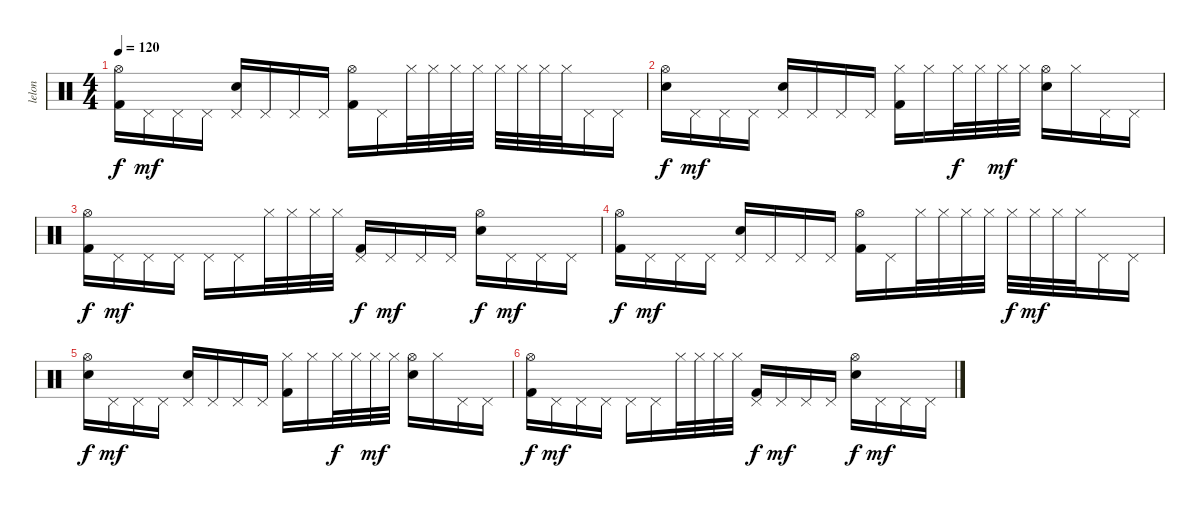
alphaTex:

\track ("lelon" "lelon") {instrument percussion}
\staff {score}
\articulation defaults
\ts (4 4)
\tempo 120
\clef neutral
\ks c
("Hi-Hat (open)" "Kick (hit) 2").16{dy f} "Pedal Hi-Hat (hit)".16{dy mf} "Pedal Hi-Hat (hit)".16 "Pedal Hi-Hat (hit)".16 ("Pedal Hi-Hat (hit)" "Electric Snare (hit)").16 "Pedal Hi-Hat (hit)".16 "Pedal Hi-Hat (hit)".16 "Pedal Hi-Hat (hit)".16 ("Hi-Hat (open)" "Kick (hit) 2").16 "Pedal Hi-Hat (hit)".16 "Hi-Hat (closed)".32 "Hi-Hat (closed)".32 "Hi-Hat (closed)".32 "Hi-Hat (closed)".32 "Hi-Hat (closed)".32 "Hi-Hat (closed)".32 "Hi-Hat (closed)".32 "Hi-Hat (closed)".32 "Pedal Hi-Hat (hit)".16 "Pedal Hi-Hat (hit)".16 |
("Hi-Hat (open)" "Electric Snare (hit)").16{dy f} "Pedal Hi-Hat (hit)".16{dy mf} "Pedal Hi-Hat (hit)".16 "Pedal Hi-Hat (hit)".16 ("Pedal Hi-Hat (hit)" "Electric Snare (hit)").16 "Pedal Hi-Hat (hit)".16 "Pedal Hi-Hat (hit)".16 "Pedal Hi-Hat (hit)".16 ("Hi-Hat (closed)" "Kick (hit) 2").16 "Hi-Hat (closed)".16 "Hi-Hat (closed)".32{dy f} "Hi-Hat (closed)".32 "Hi-Hat (closed)".32{dy mf} "Hi-Hat (closed)".32 ("Hi-Hat (open)" "Electric Snare (hit)").16 "Hi-Hat (closed)".16 "Pedal Hi-Hat (hit)".16 "Pedal Hi-Hat (hit)".16 |
("Hi-Hat (open)" "Kick (hit) 2").16{dy f} "Pedal Hi-Hat (hit)".16{dy mf} "Pedal Hi-Hat (hit)".16 "Pedal Hi-Hat (hit)".16 "Pedal Hi-Hat (hit)".16 "Pedal Hi-Hat (hit)".16 "Hi-Hat (closed)".32 "Hi-Hat (closed)".32 "Hi-Hat (closed)".32 "Hi-Hat (closed)".32 ("Pedal Hi-Hat (hit)" "Kick (hit) 2").16{dy f} "Pedal Hi-Hat (hit)".16{dy mf} "Pedal Hi-Hat (hit)".16 "Pedal Hi-Hat (hit)".16 ("Hi-Hat (open)" "Electric Snare (hit)").16{dy f} "Pedal Hi-Hat (hit)".16{dy mf} "Pedal Hi-Hat (hit)".16 "Pedal Hi-Hat (hit)".16 |
("Hi-Hat (open)" "Kick (hit) 2").16{dy f} "Pedal Hi-Hat (hit)".16{dy mf} "Pedal Hi-Hat (hit)".16 "Pedal Hi-Hat (hit)".16 ("Pedal Hi-Hat (hit)" "Electric Snare (hit)").16 "Pedal Hi-Hat (hit)".16 "Pedal Hi-Hat (hit)".16 "Pedal Hi-Hat (hit)".16 ("Hi-Hat (open)" "Kick (hit) 2").16 "Pedal Hi-Hat (hit)".16 "Hi-Hat (closed)".32 "Hi-Hat (closed)".32 "Hi-Hat (closed)".32 "Hi-Hat (closed)".32 "Hi-Hat (closed)".32{dy f} "Hi-Hat (closed)".32{dy mf} "Hi-Hat (closed)".32 "Hi-Hat (closed)".32 "Pedal Hi-Hat (hit)".16 "Pedal Hi-Hat (hit)".16 |
("Hi-Hat (open)" "Electric Snare (hit)").16{dy f} "Pedal Hi-Hat (hit)".16{dy mf} "Pedal Hi-Hat (hit)".16 "Pedal Hi-Hat (hit)".16 ("Pedal Hi-Hat (hit)" "Electric Snare (hit)").16 "Pedal Hi-Hat (hit)".16 "Pedal Hi-Hat (hit)".16 "Pedal Hi-Hat (hit)".16 ("Hi-Hat (closed)" "Kick (hit) 2").16 "Hi-Hat (closed)".16 "Hi-Hat (closed)".32{dy f} "Hi-Hat (closed)".32 "Hi-Hat (closed)".32{dy mf} "Hi-Hat (closed)".32 ("Hi-Hat (open)" "Electric Snare (hit)").16 "Hi-Hat (closed)".16 "Pedal Hi-Hat (hit)".16 "Pedal Hi-Hat (hit)".16 |
("Hi-Hat (open)" "Kick (hit) 2").16{dy f} "Pedal Hi-Hat (hit)".16{dy mf} "Pedal Hi-Hat (hit)".16 "Pedal Hi-Hat (hit)".16 "Pedal Hi-Hat (hit)".16 "Pedal Hi-Hat (hit)".16 "Hi-Hat (closed)".32 "Hi-Hat (closed)".32 "Hi-Hat (closed)".32 "Hi-Hat (closed)".32 ("Pedal Hi-Hat (hit)" "Kick (hit) 2").16{dy f} "Pedal Hi-Hat (hit)".16{dy mf} "Pedal Hi-Hat (hit)".16 "Pedal Hi-Hat (hit)".16 ("Hi-Hat (open)" "Electric Snare (hit)").16{dy f} "Pedal Hi-Hat (hit)".16{dy mf} "Pedal Hi-Hat (hit)".16 "Pedal Hi-Hat (hit)".16
